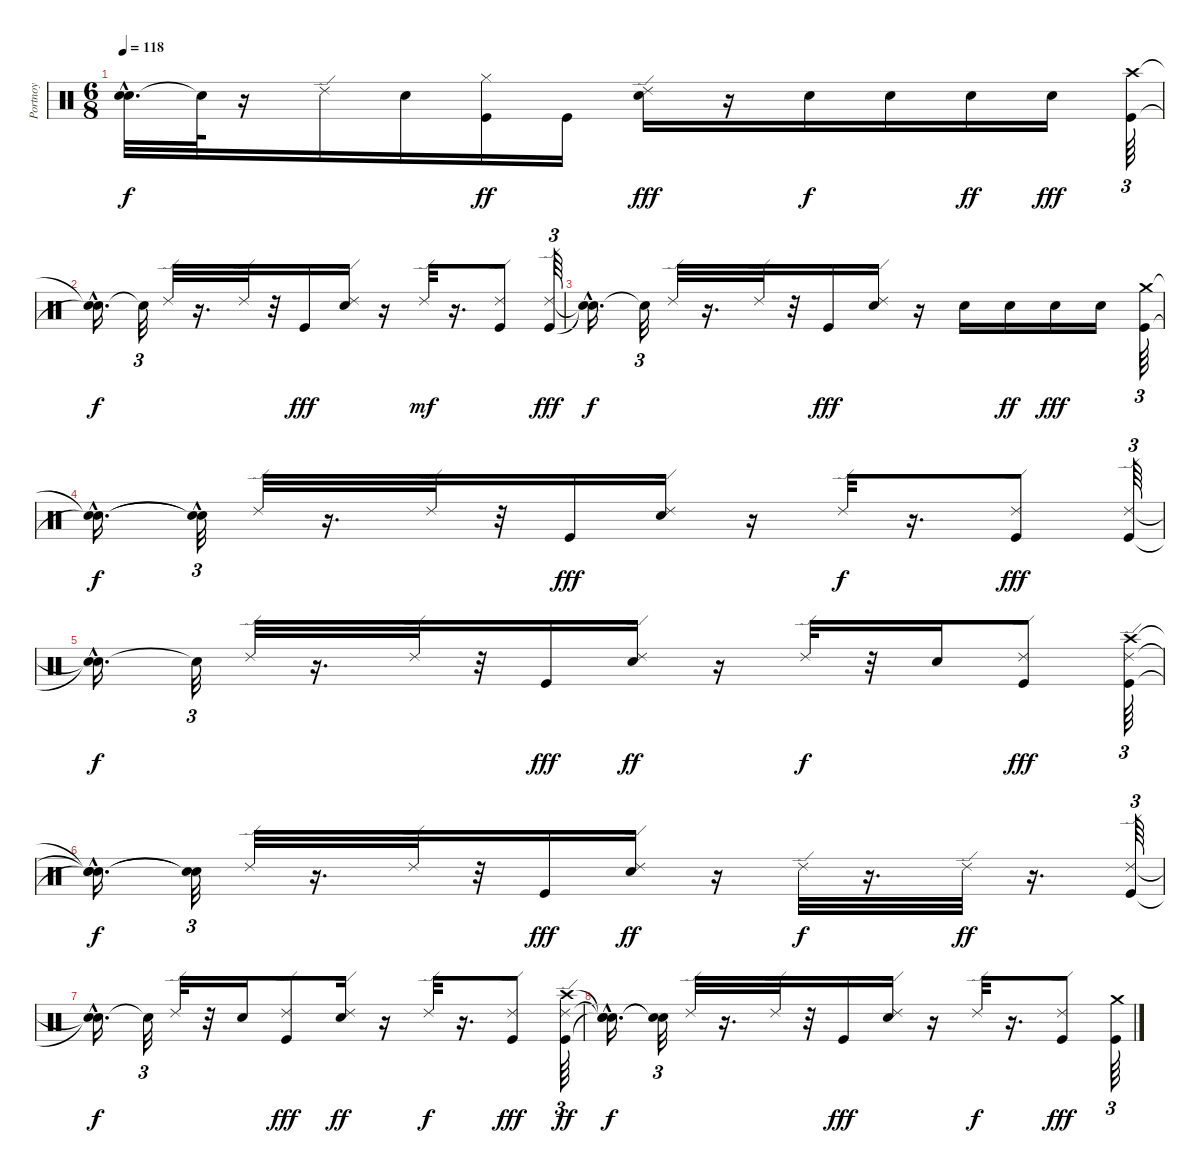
\track ("Portnoy" "Portnoy") {instrument percussion}
\staff {score}
\articulation defaults
\ts (6 8)
\tempo 118
\clef neutral
\ks c
("Snare (hit)"{t} "Snare (hit)"{hac t}).32{d dy f} "Snare (hit)"{t}.64 r.16 "Ride (edge) 2".16 "Snare (hit) 2".16 ("Hi-Hat (closed)" "Kick (hit)").16{dy ff} "Kick (hit)".16 ("Snare (hit) 2" "Ride (edge) 2").16{dy fff} r.16 "Snare (hit) 2".16{dy f} "Snare (hit) 2".16 "Snare (hit) 2".16{dy ff} "Snare (hit) 2".16{dy fff} ("Kick (hit)" "Crash high (hit)").64{tu (3 2)} |
("Snare (hit)"{hac t} "Snare (hit)"{hac t}).16{d dy f} "Snare (hit)"{t}.32{tu (3 2)} "Ride (edge) 2".32 r.16{d} "Ride (edge) 2".32 r.32 "Kick (hit)".16{dy fff} ("Snare (hit) 2" "Ride (edge) 2").16 r.16 "Ride (edge) 2".32{dy mf} r.16{d} ("Kick (hit)" "Ride (edge) 2").8 ("Kick (hit)" "Ride (edge) 2").64{tu (3 2) dy fff} |
("Snare (hit)"{hac t} "Snare (hit)"{t}).16{d dy f} "Snare (hit)"{t}.32{tu (3 2)} "Ride (edge) 2".32 r.16{d} "Ride (edge) 2".32 r.32 "Kick (hit)".16{dy fff} ("Snare (hit) 2" "Ride (edge) 2").16 r.16 "Snare (hit) 2".16 "Snare (hit) 2".16{dy ff} "Snare (hit) 2".16{dy fff} "Snare (hit) 2".16 ("Kick (hit)" "Crash medium (hit)").64{tu (3 2)} |
("Snare (hit)"{hac t} "Snare (hit)"{hac t}).16{d dy f} ("Snare (hit)"{t} "Snare (hit)"{hac t}).32{tu (3 2)} "Ride (edge) 2".32 r.16{d} "Ride (edge) 2".32 r.32 "Kick (hit)".16{dy fff} ("Ride (edge) 2" "Snare (hit) 2").16 r.16 "Ride (edge) 2".32{dy f} r.16{d} ("Ride (edge) 2" "Kick (hit)").8{dy fff} ("Ride (edge) 2" "Kick (hit)").64{tu (3 2)} |
("Snare (hit)"{t} "Snare (hit)"{hac t}).16{d dy f} "Snare (hit)"{t}.32{tu (3 2)} "Ride (edge) 2".32 r.16{d} "Ride (edge) 2".32 r.32 "Kick (hit)".16{dy fff} ("Snare (hit) 2" "Ride (edge) 2").16{dy ff} r.16 "Ride (edge) 2".32{dy f} r.32 "Snare (hit) 2".16 ("Ride (edge) 2" "Kick (hit)").8{dy fff} ("Kick (hit)" "Ride (edge) 2" "Crash high (hit)").64{tu (3 2)} |
("Snare (hit)"{hac t} "Snare (hit)"{t} "Snare (hit)"{hac t}).16{d dy f} ("Snare (hit)"{t} "Snare (hit)"{t}).32{tu (3 2)} "Ride (edge) 2".32 r.16{d} "Ride (edge) 2".32 r.32 "Kick (hit)".16{dy fff} ("Snare (hit) 2" "Ride (edge) 2").16{dy ff} r.16 "Ride (edge) 2".32{dy f} r.16{d} "Ride (edge) 2".32{dy ff} r.16{d} ("Kick (hit)" "Ride (edge) 2").64{tu (3 2)} |
("Snare (hit)"{hac t} "Snare (hit)"{t}).16{d dy f} "Snare (hit)"{t}.32{tu (3 2)} "Ride (edge) 2".32 r.32 "Snare (hit) 2".16 ("Kick (hit)" "Ride (edge) 2").8{dy fff} ("Snare (hit) 2" "Ride (edge) 2").16{dy ff} r.16 "Ride (edge) 2".32{dy f} r.16{d} ("Kick (hit)" "Ride (edge) 2").8{dy fff} ("Kick (hit)" "Crash high (hit)" "Ride (edge) 2").64{tu (3 2) dy ff} |
("Snare (hit)"{hac t} "Snare (hit)"{hac t} "Snare (hit)"{t}).16{d dy f} ("Snare (hit)"{t} "Snare (hit)"{t}).32{tu (3 2)} "Ride (edge) 2".32 r.16{d} "Ride (edge) 2".32 r.32 "Kick (hit)".16{dy fff} ("Snare (hit) 2" "Ride (edge) 2").16 r.16 "Ride (edge) 2".32{dy f} r.16{d} ("Ride (edge) 2" "Kick (hit)").8{dy fff} ("Kick (hit)" "Crash medium (hit)").64{tu (3 2)}
